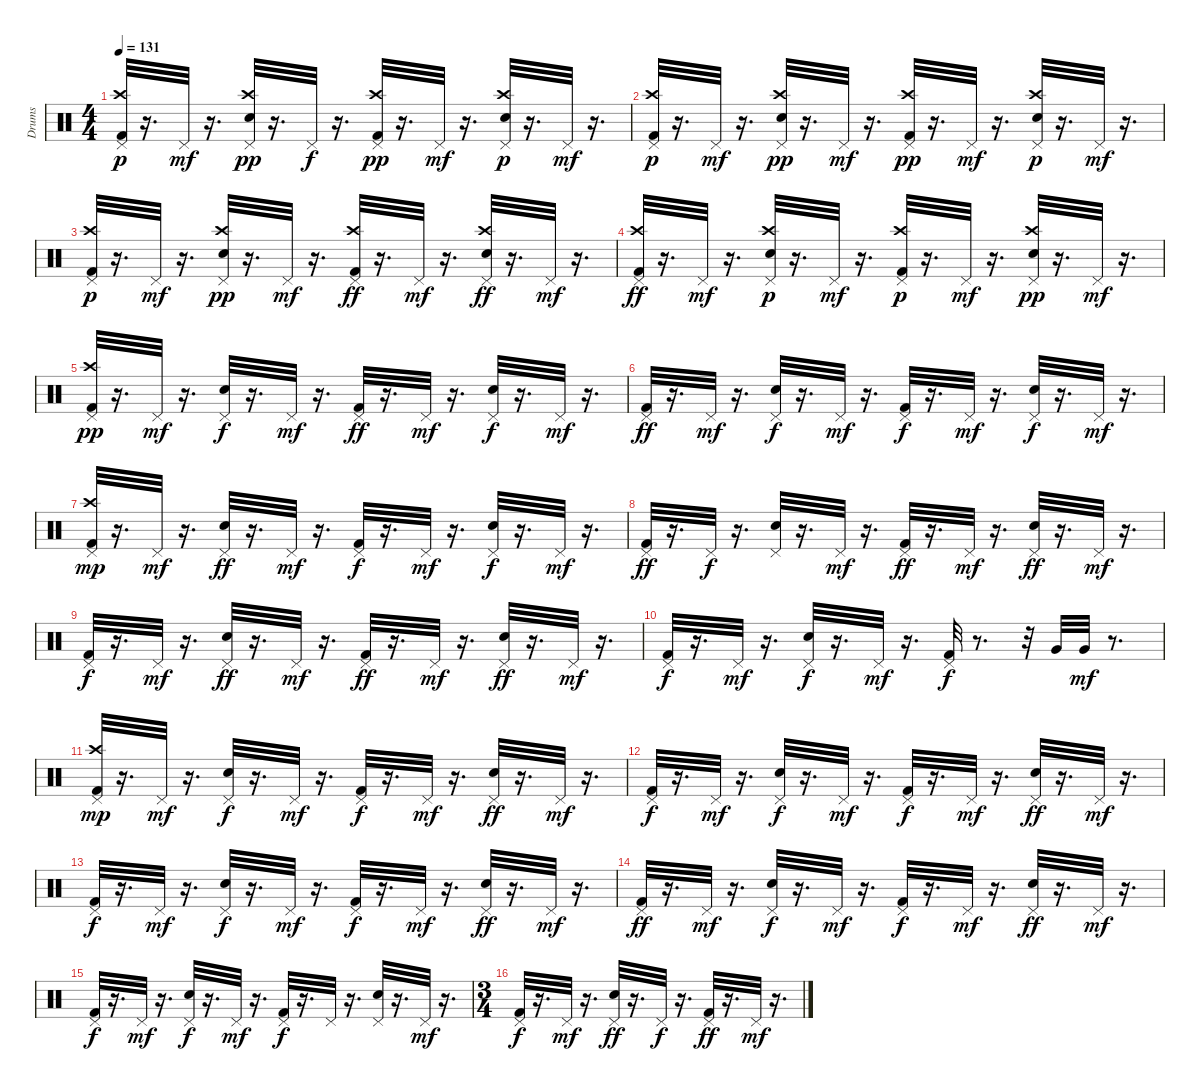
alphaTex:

\track ("Drums" "Drums") {instrument percussion}
\staff {score}
\articulation defaults
\ts (4 4)
\tempo 131
\clef neutral
\ks c
("Pedal Hi-Hat (hit)" "Crash high (hit)" "Kick (hit) 2").32{dy p} r.16{d} "Pedal Hi-Hat (hit)".32{dy mf} r.16{d} ("Crash high (hit)" "Pedal Hi-Hat (hit)" "Snare (hit) 2").32{dy pp} r.16{d} "Pedal Hi-Hat (hit)".32{dy f} r.16{d} ("Pedal Hi-Hat (hit)" "Crash high (hit)" "Kick (hit) 2").32{dy pp} r.16{d} "Pedal Hi-Hat (hit)".32{dy mf} r.16{d} ("Snare (hit) 2" "Pedal Hi-Hat (hit)" "Crash high (hit)").32{dy p} r.16{d} "Pedal Hi-Hat (hit)".32{dy mf} r.16{d} |
("Kick (hit) 2" "Crash high (hit)" "Pedal Hi-Hat (hit)").32{dy p} r.16{d} "Pedal Hi-Hat (hit)".32{dy mf} r.16{d} ("Snare (hit) 2" "Crash high (hit)" "Pedal Hi-Hat (hit)").32{dy pp} r.16{d} "Pedal Hi-Hat (hit)".32{dy mf} r.16{d} ("Pedal Hi-Hat (hit)" "Kick (hit) 2" "Crash high (hit)").32{dy pp} r.16{d} "Pedal Hi-Hat (hit)".32{dy mf} r.16{d} ("Snare (hit) 2" "Pedal Hi-Hat (hit)" "Crash high (hit)").32{dy p} r.16{d} "Pedal Hi-Hat (hit)".32{dy mf} r.16{d} |
("Kick (hit) 2" "Pedal Hi-Hat (hit)" "Crash high (hit)").32{dy p} r.16{d} "Pedal Hi-Hat (hit)".32{dy mf} r.16{d} ("Snare (hit) 2" "Pedal Hi-Hat (hit)" "Crash high (hit)").32{dy pp} r.16{d} "Pedal Hi-Hat (hit)".32{dy mf} r.16{d} ("Crash high (hit)" "Pedal Hi-Hat (hit)" "Kick (hit) 2").32{dy ff} r.16{d} "Pedal Hi-Hat (hit)".32{dy mf} r.16{d} ("Crash high (hit)" "Pedal Hi-Hat (hit)" "Snare (hit) 2").32{dy ff} r.16{d} "Pedal Hi-Hat (hit)".32{dy mf} r.16{d} |
("Kick (hit) 2" "Crash high (hit)" "Pedal Hi-Hat (hit)").32{dy ff} r.16{d} "Pedal Hi-Hat (hit)".32{dy mf} r.16{d} ("Crash high (hit)" "Snare (hit) 2" "Pedal Hi-Hat (hit)").32{dy p} r.16{d} "Pedal Hi-Hat (hit)".32{dy mf} r.16{d} ("Pedal Hi-Hat (hit)" "Crash high (hit)" "Kick (hit) 2").32{dy p} r.16{d} "Pedal Hi-Hat (hit)".32{dy mf} r.16{d} ("Crash high (hit)" "Snare (hit) 2" "Pedal Hi-Hat (hit)").32{dy pp} r.16{d} "Pedal Hi-Hat (hit)".32{dy mf} r.16{d} |
("Pedal Hi-Hat (hit)" "Crash high (hit)" "Kick (hit) 2").32{dy pp} r.16{d} "Pedal Hi-Hat (hit)".32{dy mf} r.16{d} ("Pedal Hi-Hat (hit)" "Snare (hit) 2").32{dy f} r.16{d} "Pedal Hi-Hat (hit)".32{dy mf} r.16{d} ("Kick (hit) 2" "Pedal Hi-Hat (hit)").32{dy ff} r.16{d} "Pedal Hi-Hat (hit)".32{dy mf} r.16{d} ("Snare (hit) 2" "Pedal Hi-Hat (hit)").32{dy f} r.16{d} "Pedal Hi-Hat (hit)".32{dy mf} r.16{d} |
("Kick (hit) 2" "Pedal Hi-Hat (hit)").32{dy ff} r.16{d} "Pedal Hi-Hat (hit)".32{dy mf} r.16{d} ("Snare (hit) 2" "Pedal Hi-Hat (hit)").32{dy f} r.16{d} "Pedal Hi-Hat (hit)".32{dy mf} r.16{d} ("Pedal Hi-Hat (hit)" "Kick (hit) 2").32{dy f} r.16{d} "Pedal Hi-Hat (hit)".32{dy mf} r.16{d} ("Pedal Hi-Hat (hit)" "Snare (hit) 2").32{dy f} r.16{d} "Pedal Hi-Hat (hit)".32{dy mf} r.16{d} |
("Crash high (hit)" "Pedal Hi-Hat (hit)" "Kick (hit) 2").32{dy mp} r.16{d} "Pedal Hi-Hat (hit)".32{dy mf} r.16{d} ("Snare (hit) 2" "Pedal Hi-Hat (hit)").32{dy ff} r.16{d} "Pedal Hi-Hat (hit)".32{dy mf} r.16{d} ("Pedal Hi-Hat (hit)" "Kick (hit) 2").32{dy f} r.16{d} "Pedal Hi-Hat (hit)".32{dy mf} r.16{d} ("Snare (hit) 2" "Pedal Hi-Hat (hit)").32{dy f} r.16{d} "Pedal Hi-Hat (hit)".32{dy mf} r.16{d} |
("Pedal Hi-Hat (hit)" "Kick (hit) 2").32{dy ff} r.16{d} "Pedal Hi-Hat (hit)".32{dy f} r.16{d} ("Snare (hit) 2" "Pedal Hi-Hat (hit)").32 r.16{d} "Pedal Hi-Hat (hit)".32{dy mf} r.16{d} ("Kick (hit) 2" "Pedal Hi-Hat (hit)").32{dy ff} r.16{d} "Pedal Hi-Hat (hit)".32{dy mf} r.16{d} ("Pedal Hi-Hat (hit)" "Snare (hit) 2").32{dy ff} r.16{d} "Pedal Hi-Hat (hit)".32{dy mf} r.16{d} |
("Kick (hit) 2" "Pedal Hi-Hat (hit)").32{dy f} r.16{d} "Pedal Hi-Hat (hit)".32{dy mf} r.16{d} ("Snare (hit) 2" "Pedal Hi-Hat (hit)").32{dy ff} r.16{d} "Pedal Hi-Hat (hit)".32{dy mf} r.16{d} ("Pedal Hi-Hat (hit)" "Kick (hit) 2").32{dy ff} r.16{d} "Pedal Hi-Hat (hit)".32{dy mf} r.16{d} ("Pedal Hi-Hat (hit)" "Snare (hit) 2").32{dy ff} r.16{d} "Pedal Hi-Hat (hit)".32{dy mf} r.16{d} |
("Kick (hit) 2" "Pedal Hi-Hat (hit)").32{dy f} r.16{d} "Pedal Hi-Hat (hit)".32{dy mf} r.16{d} ("Pedal Hi-Hat (hit)" "Snare (hit) 2").32{dy f} r.16{d} "Pedal Hi-Hat (hit)".32{dy mf} r.16{d} ("Kick (hit) 2" "Pedal Hi-Hat (hit)").32{dy f} r.8{d} r.32 "Very Low Tom (hit)".32 "Very Low Tom (hit)".32{dy mf} r.8{d} |
("Pedal Hi-Hat (hit)" "Kick (hit) 2" "Crash high (hit)").32{dy mp} r.16{d} "Pedal Hi-Hat (hit)".32{dy mf} r.16{d} ("Snare (hit) 2" "Pedal Hi-Hat (hit)").32{dy f} r.16{d} "Pedal Hi-Hat (hit)".32{dy mf} r.16{d} ("Kick (hit) 2" "Pedal Hi-Hat (hit)").32{dy f} r.16{d} "Pedal Hi-Hat (hit)".32{dy mf} r.16{d} ("Pedal Hi-Hat (hit)" "Snare (hit) 2").32{dy ff} r.16{d} "Pedal Hi-Hat (hit)".32{dy mf} r.16{d} |
("Kick (hit) 2" "Pedal Hi-Hat (hit)").32{dy f} r.16{d} "Pedal Hi-Hat (hit)".32{dy mf} r.16{d} ("Snare (hit) 2" "Pedal Hi-Hat (hit)").32{dy f} r.16{d} "Pedal Hi-Hat (hit)".32{dy mf} r.16{d} ("Kick (hit) 2" "Pedal Hi-Hat (hit)").32{dy f} r.16{d} "Pedal Hi-Hat (hit)".32{dy mf} r.16{d} ("Pedal Hi-Hat (hit)" "Snare (hit) 2").32{dy ff} r.16{d} "Pedal Hi-Hat (hit)".32{dy mf} r.16{d} |
("Pedal Hi-Hat (hit)" "Kick (hit) 2").32{dy f} r.16{d} "Pedal Hi-Hat (hit)".32{dy mf} r.16{d} ("Snare (hit) 2" "Pedal Hi-Hat (hit)").32{dy f} r.16{d} "Pedal Hi-Hat (hit)".32{dy mf} r.16{d} ("Pedal Hi-Hat (hit)" "Kick (hit) 2").32{dy f} r.16{d} "Pedal Hi-Hat (hit)".32{dy mf} r.16{d} ("Pedal Hi-Hat (hit)" "Snare (hit) 2").32{dy ff} r.16{d} "Pedal Hi-Hat (hit)".32{dy mf} r.16{d} |
("Pedal Hi-Hat (hit)" "Kick (hit) 2").32{dy ff} r.16{d} "Pedal Hi-Hat (hit)".32{dy mf} r.16{d} ("Snare (hit) 2" "Pedal Hi-Hat (hit)").32{dy f} r.16{d} "Pedal Hi-Hat (hit)".32{dy mf} r.16{d} ("Pedal Hi-Hat (hit)" "Kick (hit) 2").32{dy f} r.16{d} "Pedal Hi-Hat (hit)".32{dy mf} r.16{d} ("Snare (hit) 2" "Pedal Hi-Hat (hit)").32{dy ff} r.16{d} "Pedal Hi-Hat (hit)".32{dy mf} r.16{d} |
("Pedal Hi-Hat (hit)" "Kick (hit) 2").32{dy f} r.16{d} "Pedal Hi-Hat (hit)".32{dy mf} r.16{d} ("Pedal Hi-Hat (hit)" "Snare (hit) 2").32{dy f} r.16{d} "Pedal Hi-Hat (hit)".32{dy mf} r.16{d} ("Pedal Hi-Hat (hit)" "Kick (hit) 2").32{dy f} r.16{d} "Pedal Hi-Hat (hit)".32 r.16{d} ("Pedal Hi-Hat (hit)" "Snare (hit) 2").32 r.16{d} "Pedal Hi-Hat (hit)".32{dy mf} r.16{d} |
\ts (3 4)
("Kick (hit) 2" "Pedal Hi-Hat (hit)").32{dy f} r.16{d} "Pedal Hi-Hat (hit)".32{dy mf} r.16{d} ("Snare (hit) 2" "Pedal Hi-Hat (hit)").32{dy ff} r.16{d} "Pedal Hi-Hat (hit)".32{dy f} r.16{d} ("Pedal Hi-Hat (hit)" "Kick (hit) 2").32{dy ff} r.16{d} "Pedal Hi-Hat (hit)".32{dy mf} r.16{d}
